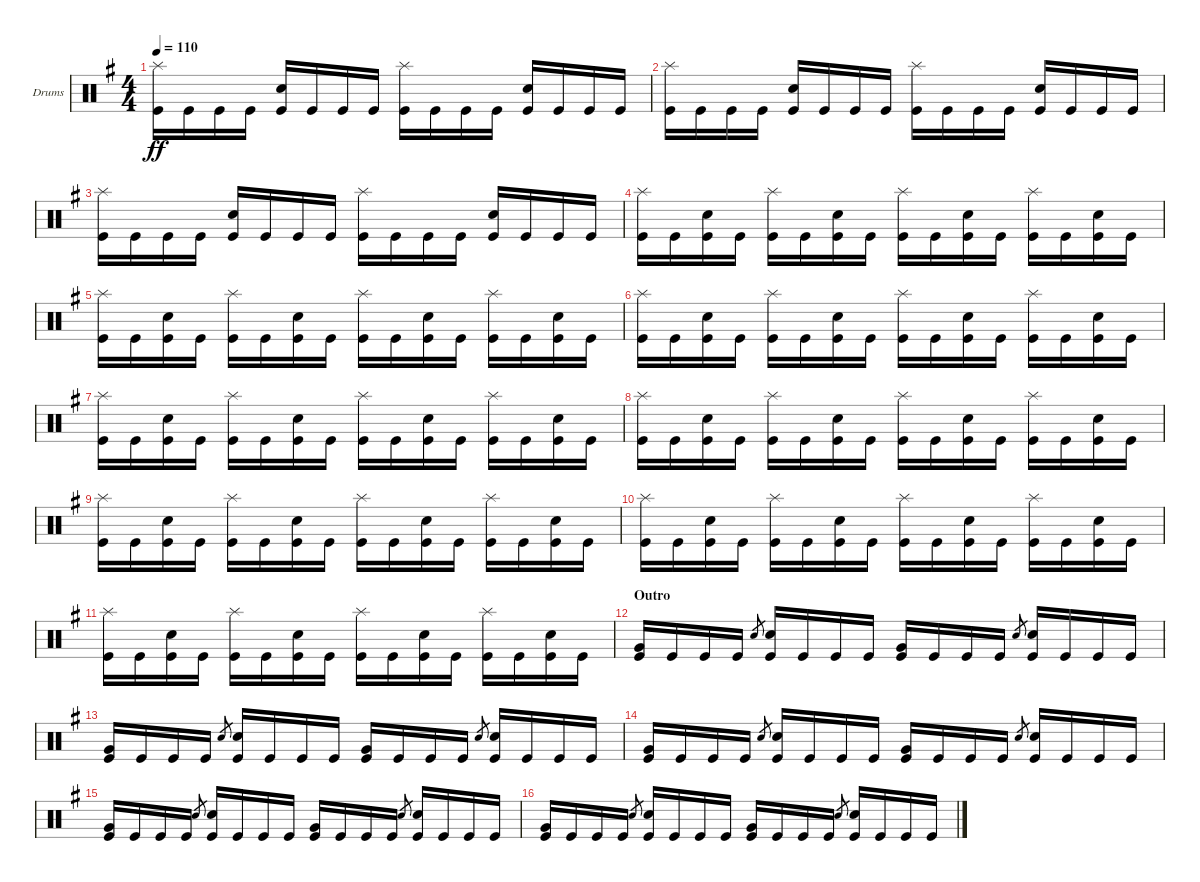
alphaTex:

\defaultSystemsLayout 4
\bracketExtendMode groupsimilarinstruments
\firstSystemTrackNameOrientation horizontal
\otherSystemsTrackNameOrientation horizontal
\track ("Drums" "Drums") {instrument percussion}
\staff {score}
\articulation defaults
\ts (4 4)
\tempo 110
\clef neutral
\ks eminor
("Kick (hit)" "Splash (hit)").16{dy ff} "Kick (hit)".16 "Kick (hit)".16 "Kick (hit)".16 ("Kick (hit)" "Snare (hit) 2").16 "Kick (hit)".16 "Kick (hit)".16 "Kick (hit)".16 ("Kick (hit)" "Splash (hit)").16 "Kick (hit)".16 "Kick (hit)".16 "Kick (hit)".16 ("Kick (hit)" "Snare (hit) 2").16 "Kick (hit)".16 "Kick (hit)".16 "Kick (hit)".16 |
("Kick (hit)" "Splash (hit)").16 "Kick (hit)".16 "Kick (hit)".16 "Kick (hit)".16 ("Kick (hit)" "Snare (hit) 2").16 "Kick (hit)".16 "Kick (hit)".16 "Kick (hit)".16 ("Kick (hit)" "Splash (hit)").16 "Kick (hit)".16 "Kick (hit)".16 "Kick (hit)".16 ("Kick (hit)" "Snare (hit) 2").16 "Kick (hit)".16 "Kick (hit)".16 "Kick (hit)".16 |
("Kick (hit)" "Splash (hit)").16 "Kick (hit)".16 "Kick (hit)".16 "Kick (hit)".16 ("Kick (hit)" "Snare (hit) 2").16 "Kick (hit)".16 "Kick (hit)".16 "Kick (hit)".16 ("Kick (hit)" "Splash (hit)").16 "Kick (hit)".16 "Kick (hit)".16 "Kick (hit)".16 ("Kick (hit)" "Snare (hit) 2").16 "Kick (hit)".16 "Kick (hit)".16 "Kick (hit)".16 |
("Kick (hit)" "Splash (hit)").16 "Kick (hit)".16 ("Kick (hit)" "Snare (hit) 2").16 "Kick (hit)".16 ("Kick (hit)" "Splash (hit)").16 "Kick (hit)".16 ("Kick (hit)" "Snare (hit) 2").16 "Kick (hit)".16 ("Kick (hit)" "Splash (hit)").16 "Kick (hit)".16 ("Kick (hit)" "Snare (hit) 2").16 "Kick (hit)".16 ("Kick (hit)" "Splash (hit)").16 "Kick (hit)".16 ("Kick (hit)" "Snare (hit) 2").16 "Kick (hit)".16 |
("Kick (hit)" "Splash (hit)").16 "Kick (hit)".16 ("Kick (hit)" "Snare (hit) 2").16 "Kick (hit)".16 ("Kick (hit)" "Splash (hit)").16 "Kick (hit)".16 ("Kick (hit)" "Snare (hit) 2").16 "Kick (hit)".16 ("Kick (hit)" "Splash (hit)").16 "Kick (hit)".16 ("Kick (hit)" "Snare (hit) 2").16 "Kick (hit)".16 ("Kick (hit)" "Splash (hit)").16 "Kick (hit)".16 ("Kick (hit)" "Snare (hit) 2").16 "Kick (hit)".16 |
("Kick (hit)" "Splash (hit)").16 "Kick (hit)".16 ("Kick (hit)" "Snare (hit) 2").16 "Kick (hit)".16 ("Kick (hit)" "Splash (hit)").16 "Kick (hit)".16 ("Kick (hit)" "Snare (hit) 2").16 "Kick (hit)".16 ("Kick (hit)" "Splash (hit)").16 "Kick (hit)".16 ("Kick (hit)" "Snare (hit) 2").16 "Kick (hit)".16 ("Kick (hit)" "Splash (hit)").16 "Kick (hit)".16 ("Kick (hit)" "Snare (hit) 2").16 "Kick (hit)".16 |
("Kick (hit)" "Splash (hit)").16 "Kick (hit)".16 ("Kick (hit)" "Snare (hit) 2").16 "Kick (hit)".16 ("Kick (hit)" "Splash (hit)").16 "Kick (hit)".16 ("Kick (hit)" "Snare (hit) 2").16 "Kick (hit)".16 ("Kick (hit)" "Splash (hit)").16 "Kick (hit)".16 ("Kick (hit)" "Snare (hit) 2").16 "Kick (hit)".16 ("Kick (hit)" "Splash (hit)").16 "Kick (hit)".16 ("Kick (hit)" "Snare (hit) 2").16 "Kick (hit)".16 |
("Kick (hit)" "Splash (hit)").16 "Kick (hit)".16 ("Kick (hit)" "Snare (hit) 2").16 "Kick (hit)".16 ("Kick (hit)" "Splash (hit)").16 "Kick (hit)".16 ("Kick (hit)" "Snare (hit) 2").16 "Kick (hit)".16 ("Kick (hit)" "Splash (hit)").16 "Kick (hit)".16 ("Kick (hit)" "Snare (hit) 2").16 "Kick (hit)".16 ("Kick (hit)" "Splash (hit)").16 "Kick (hit)".16 ("Kick (hit)" "Snare (hit) 2").16 "Kick (hit)".16 |
("Kick (hit)" "Splash (hit)").16 "Kick (hit)".16 ("Kick (hit)" "Snare (hit) 2").16 "Kick (hit)".16 ("Kick (hit)" "Splash (hit)").16 "Kick (hit)".16 ("Kick (hit)" "Snare (hit) 2").16 "Kick (hit)".16 ("Kick (hit)" "Splash (hit)").16 "Kick (hit)".16 ("Kick (hit)" "Snare (hit) 2").16 "Kick (hit)".16 ("Kick (hit)" "Splash (hit)").16 "Kick (hit)".16 ("Kick (hit)" "Snare (hit) 2").16 "Kick (hit)".16 |
("Kick (hit)" "Splash (hit)").16 "Kick (hit)".16 ("Kick (hit)" "Snare (hit) 2").16 "Kick (hit)".16 ("Kick (hit)" "Splash (hit)").16 "Kick (hit)".16 ("Kick (hit)" "Snare (hit) 2").16 "Kick (hit)".16 ("Kick (hit)" "Splash (hit)").16 "Kick (hit)".16 ("Kick (hit)" "Snare (hit) 2").16 "Kick (hit)".16 ("Kick (hit)" "Splash (hit)").16 "Kick (hit)".16 ("Kick (hit)" "Snare (hit) 2").16 "Kick (hit)".16 |
("Kick (hit)" "Splash (hit)").16 "Kick (hit)".16 ("Kick (hit)" "Snare (hit) 2").16 "Kick (hit)".16 ("Kick (hit)" "Splash (hit)").16 "Kick (hit)".16 ("Kick (hit)" "Snare (hit) 2").16 "Kick (hit)".16 ("Kick (hit)" "Splash (hit)").16 "Kick (hit)".16 ("Kick (hit)" "Snare (hit) 2").16 "Kick (hit)".16 ("Kick (hit)" "Splash (hit)").16 "Kick (hit)".16 ("Kick (hit)" "Snare (hit) 2").16 "Kick (hit)".16 |
\section ("" "Outro")
("Kick (hit)" "Very Low Tom (hit)").16 "Kick (hit)".16 "Kick (hit)".16 "Kick (hit)".16 "Snare (hit) 2".8{gr} ("Kick (hit)" "Snare (hit) 2").16 "Kick (hit)".16 "Kick (hit)".16 "Kick (hit)".16 ("Kick (hit)" "Very Low Tom (hit)").16 "Kick (hit)".16 "Kick (hit)".16 "Kick (hit)".16 "Snare (hit) 2".8{gr} ("Kick (hit)" "Snare (hit) 2").16 "Kick (hit)".16 "Kick (hit)".16 "Kick (hit)".16 |
("Kick (hit)" "Very Low Tom (hit)").16 "Kick (hit)".16 "Kick (hit)".16 "Kick (hit)".16 "Snare (hit) 2".8{gr} ("Kick (hit)" "Snare (hit) 2").16 "Kick (hit)".16 "Kick (hit)".16 "Kick (hit)".16 ("Kick (hit)" "Very Low Tom (hit)").16 "Kick (hit)".16 "Kick (hit)".16 "Kick (hit)".16 "Snare (hit) 2".8{gr} ("Kick (hit)" "Snare (hit) 2").16 "Kick (hit)".16 "Kick (hit)".16 "Kick (hit)".16 |
("Kick (hit)" "Very Low Tom (hit)").16 "Kick (hit)".16 "Kick (hit)".16 "Kick (hit)".16 "Snare (hit) 2".8{gr} ("Kick (hit)" "Snare (hit) 2").16 "Kick (hit)".16 "Kick (hit)".16 "Kick (hit)".16 ("Kick (hit)" "Very Low Tom (hit)").16 "Kick (hit)".16 "Kick (hit)".16 "Kick (hit)".16 "Snare (hit) 2".8{gr} ("Kick (hit)" "Snare (hit) 2").16 "Kick (hit)".16 "Kick (hit)".16 "Kick (hit)".16 |
("Kick (hit)" "Very Low Tom (hit)").16 "Kick (hit)".16 "Kick (hit)".16 "Kick (hit)".16 "Snare (hit) 2".8{gr} ("Kick (hit)" "Snare (hit) 2").16 "Kick (hit)".16 "Kick (hit)".16 "Kick (hit)".16 ("Kick (hit)" "Very Low Tom (hit)").16 "Kick (hit)".16 "Kick (hit)".16 "Kick (hit)".16 "Snare (hit) 2".8{gr} ("Kick (hit)" "Snare (hit) 2").16 "Kick (hit)".16 "Kick (hit)".16 "Kick (hit)".16 |
("Kick (hit)" "Very Low Tom (hit)").16 "Kick (hit)".16 "Kick (hit)".16 "Kick (hit)".16 "Snare (hit) 2".8{gr} ("Kick (hit)" "Snare (hit) 2").16 "Kick (hit)".16 "Kick (hit)".16 "Kick (hit)".16 ("Kick (hit)" "Very Low Tom (hit)").16 "Kick (hit)".16 "Kick (hit)".16 "Kick (hit)".16 "Snare (hit) 2".8{gr} ("Kick (hit)" "Snare (hit) 2").16 "Kick (hit)".16 "Kick (hit)".16 "Kick (hit)".16
